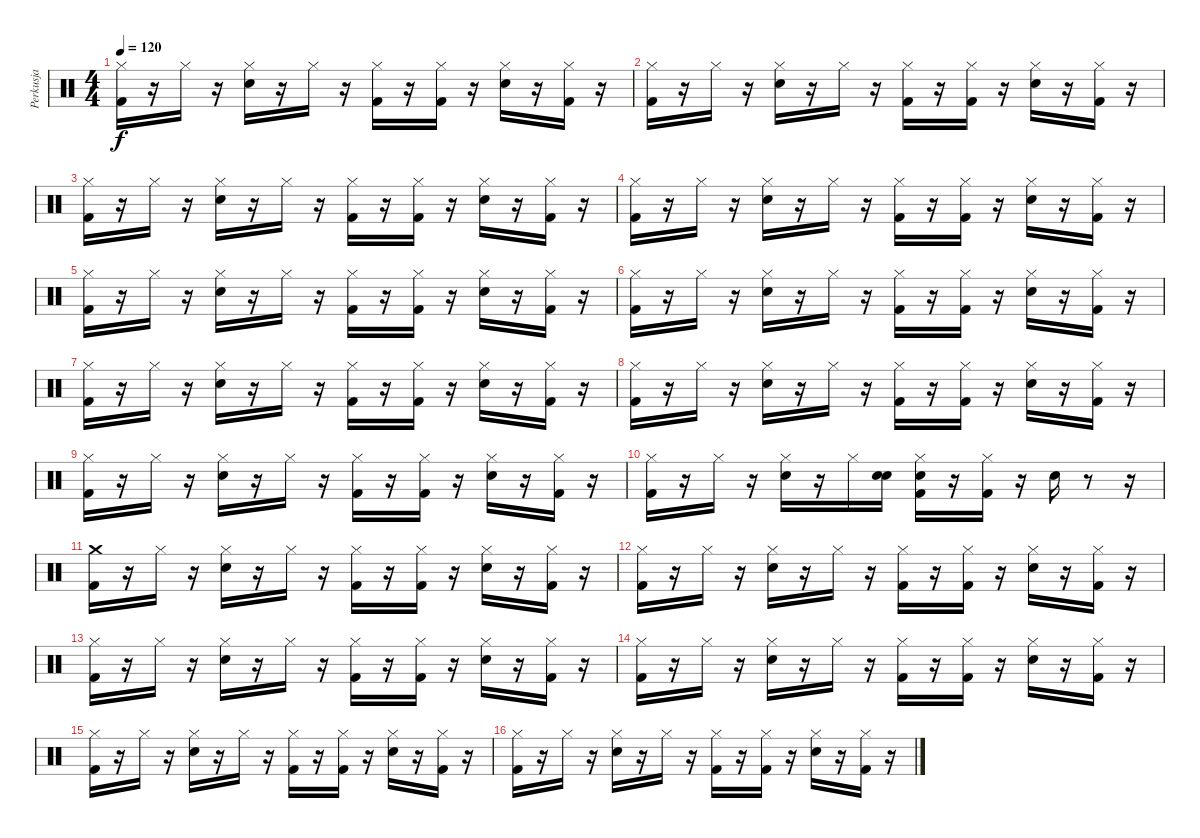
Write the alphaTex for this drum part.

\track ("Perkusja" "Perkusja") {instrument percussion}
\staff {score}
\articulation defaults
\ts (4 4)
\tempo 120
\clef neutral
\ks c
("Kick (hit) 2" "Hi-Hat (closed)").16{dy f} r.16 "Hi-Hat (closed)".16 r.16 ("Hi-Hat (closed)" "Snare (hit) 2").16 r.16 "Hi-Hat (closed)".16 r.16 ("Hi-Hat (closed)" "Kick (hit) 2").16 r.16 ("Kick (hit) 2" "Hi-Hat (closed)").16 r.16 ("Hi-Hat (closed)" "Snare (hit) 2").16 r.16 ("Hi-Hat (closed)" "Kick (hit) 2").16 r.16 |
("Kick (hit) 2" "Hi-Hat (closed)").16 r.16 "Hi-Hat (closed)".16 r.16 ("Hi-Hat (closed)" "Snare (hit) 2").16 r.16 "Hi-Hat (closed)".16 r.16 ("Hi-Hat (closed)" "Kick (hit) 2").16 r.16 ("Kick (hit) 2" "Hi-Hat (closed)").16 r.16 ("Snare (hit) 2" "Hi-Hat (closed)").16 r.16 ("Kick (hit) 2" "Hi-Hat (closed)").16 r.16 |
("Kick (hit) 2" "Hi-Hat (closed)").16 r.16 "Hi-Hat (closed)".16 r.16 ("Snare (hit) 2" "Hi-Hat (closed)").16 r.16 "Hi-Hat (closed)".16 r.16 ("Hi-Hat (closed)" "Kick (hit) 2").16 r.16 ("Kick (hit) 2" "Hi-Hat (closed)").16 r.16 ("Snare (hit) 2" "Hi-Hat (closed)").16 r.16 ("Hi-Hat (closed)" "Kick (hit) 2").16 r.16 |
("Hi-Hat (closed)" "Kick (hit) 2").16 r.16 "Hi-Hat (closed)".16 r.16 ("Hi-Hat (closed)" "Snare (hit) 2").16 r.16 "Hi-Hat (closed)".16 r.16 ("Kick (hit) 2" "Hi-Hat (closed)").16 r.16 ("Kick (hit) 2" "Hi-Hat (closed)").16 r.16 ("Snare (hit) 2" "Hi-Hat (closed)").16 r.16 ("Kick (hit) 2" "Hi-Hat (closed)").16 r.16 |
("Kick (hit) 2" "Hi-Hat (closed)").16 r.16 "Hi-Hat (closed)".16 r.16 ("Hi-Hat (closed)" "Snare (hit) 2").16 r.16 "Hi-Hat (closed)".16 r.16 ("Kick (hit) 2" "Hi-Hat (closed)").16 r.16 ("Hi-Hat (closed)" "Kick (hit) 2").16 r.16 ("Snare (hit) 2" "Hi-Hat (closed)").16 r.16 ("Hi-Hat (closed)" "Kick (hit) 2").16 r.16 |
("Kick (hit) 2" "Hi-Hat (closed)").16 r.16 "Hi-Hat (closed)".16 r.16 ("Snare (hit) 2" "Hi-Hat (closed)").16 r.16 "Hi-Hat (closed)".16 r.16 ("Kick (hit) 2" "Hi-Hat (closed)").16 r.16 ("Kick (hit) 2" "Hi-Hat (closed)").16 r.16 ("Snare (hit) 2" "Hi-Hat (closed)").16 r.16 ("Kick (hit) 2" "Hi-Hat (closed)").16 r.16 |
("Kick (hit) 2" "Hi-Hat (closed)").16 r.16 "Hi-Hat (closed)".16 r.16 ("Hi-Hat (closed)" "Snare (hit) 2").16 r.16 "Hi-Hat (closed)".16 r.16 ("Hi-Hat (closed)" "Kick (hit) 2").16 r.16 ("Kick (hit) 2" "Hi-Hat (closed)").16 r.16 ("Snare (hit) 2" "Hi-Hat (closed)").16 r.16 ("Hi-Hat (closed)" "Kick (hit) 2").16 r.16 |
("Kick (hit) 2" "Hi-Hat (closed)").16 r.16 "Hi-Hat (closed)".16 r.16 ("Snare (hit) 2" "Hi-Hat (closed)").16 r.16 "Hi-Hat (closed)".16 r.16 ("Kick (hit) 2" "Hi-Hat (closed)").16 r.16 ("Kick (hit) 2" "Hi-Hat (closed)").16 r.16 ("Snare (hit) 2" "Hi-Hat (closed)").16 r.16 ("Hi-Hat (closed)" "Kick (hit) 2").16 r.16 |
("Hi-Hat (closed)" "Kick (hit) 2").16 r.16 "Hi-Hat (closed)".16 r.16 ("Snare (hit) 2" "Hi-Hat (closed)").16 r.16 "Hi-Hat (closed)".16 r.16 ("Kick (hit) 2" "Hi-Hat (closed)").16 r.16 ("Kick (hit) 2" "Hi-Hat (closed)").16 r.16 ("Hi-Hat (closed)" "Snare (hit) 2").16 r.16 ("Hi-Hat (closed)" "Kick (hit) 2").16 r.16 |
("Hi-Hat (closed)" "Kick (hit) 2").16 r.16 "Hi-Hat (closed)".16 r.16 ("Hi-Hat (closed)" "Snare (hit) 2").16 r.16 "Hi-Hat (closed)".16 ("Snare (hit)" "Snare (hit) 2").16 ("Snare (hit)" "Kick (hit) 2" "Hi-Hat (closed)").16 r.16 ("Hi-Hat (closed)" "Kick (hit) 2").16 r.16 "Snare (hit) 2".16 r.8 r.16 |
("Kick (hit) 2" "Crash medium (hit)").16 r.16 "Hi-Hat (closed)".16 r.16 ("Hi-Hat (closed)" "Snare (hit) 2").16 r.16 "Hi-Hat (closed)".16 r.16 ("Hi-Hat (closed)" "Kick (hit) 2").16 r.16 ("Hi-Hat (closed)" "Kick (hit) 2").16 r.16 ("Hi-Hat (closed)" "Snare (hit) 2").16 r.16 ("Kick (hit) 2" "Hi-Hat (closed)").16 r.16 |
("Hi-Hat (closed)" "Kick (hit) 2").16 r.16 "Hi-Hat (closed)".16 r.16 ("Snare (hit) 2" "Hi-Hat (closed)").16 r.16 "Hi-Hat (closed)".16 r.16 ("Hi-Hat (closed)" "Kick (hit) 2").16 r.16 ("Kick (hit) 2" "Hi-Hat (closed)").16 r.16 ("Hi-Hat (closed)" "Snare (hit) 2").16 r.16 ("Hi-Hat (closed)" "Kick (hit) 2").16 r.16 |
("Hi-Hat (closed)" "Kick (hit) 2").16 r.16 "Hi-Hat (closed)".16 r.16 ("Snare (hit) 2" "Hi-Hat (closed)").16 r.16 "Hi-Hat (closed)".16 r.16 ("Hi-Hat (closed)" "Kick (hit) 2").16 r.16 ("Hi-Hat (closed)" "Kick (hit) 2").16 r.16 ("Snare (hit) 2" "Hi-Hat (closed)").16 r.16 ("Kick (hit) 2" "Hi-Hat (closed)").16 r.16 |
("Kick (hit) 2" "Hi-Hat (closed)").16 r.16 "Hi-Hat (closed)".16 r.16 ("Hi-Hat (closed)" "Snare (hit) 2").16 r.16 "Hi-Hat (closed)".16 r.16 ("Hi-Hat (closed)" "Kick (hit) 2").16 r.16 ("Hi-Hat (closed)" "Kick (hit) 2").16 r.16 ("Hi-Hat (closed)" "Snare (hit) 2").16 r.16 ("Hi-Hat (closed)" "Kick (hit) 2").16 r.16 |
("Hi-Hat (closed)" "Kick (hit) 2").16 r.16 "Hi-Hat (closed)".16 r.16 ("Snare (hit) 2" "Hi-Hat (closed)").16 r.16 "Hi-Hat (closed)".16 r.16 ("Kick (hit) 2" "Hi-Hat (closed)").16 r.16 ("Kick (hit) 2" "Hi-Hat (closed)").16 r.16 ("Snare (hit) 2" "Hi-Hat (closed)").16 r.16 ("Kick (hit) 2" "Hi-Hat (closed)").16 r.16 |
("Kick (hit) 2" "Hi-Hat (closed)").16 r.16 "Hi-Hat (closed)".16 r.16 ("Snare (hit) 2" "Hi-Hat (closed)").16 r.16 "Hi-Hat (closed)".16 r.16 ("Hi-Hat (closed)" "Kick (hit) 2").16 r.16 ("Kick (hit) 2" "Hi-Hat (closed)").16 r.16 ("Snare (hit) 2" "Hi-Hat (closed)").16 r.16 ("Hi-Hat (closed)" "Kick (hit) 2").16 r.16
